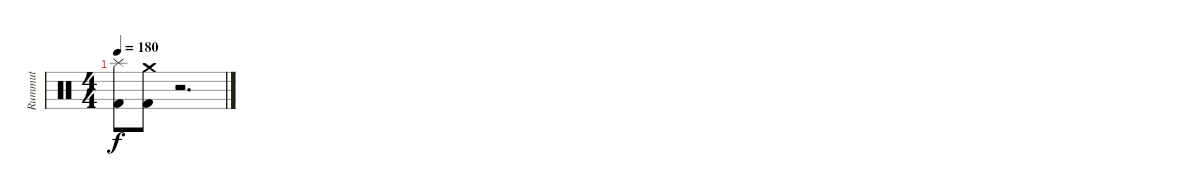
\track ("Rummut" "Rummut") {instrument percussion}
\staff {score}
\articulation defaults
\ts (4 4)
\tempo 180
\clef neutral
\ks c
("Splash (hit)" "Kick (hit) 2").8{dy f} ("Crash medium (hit)" "Kick (hit) 2").8 r.2{d}
